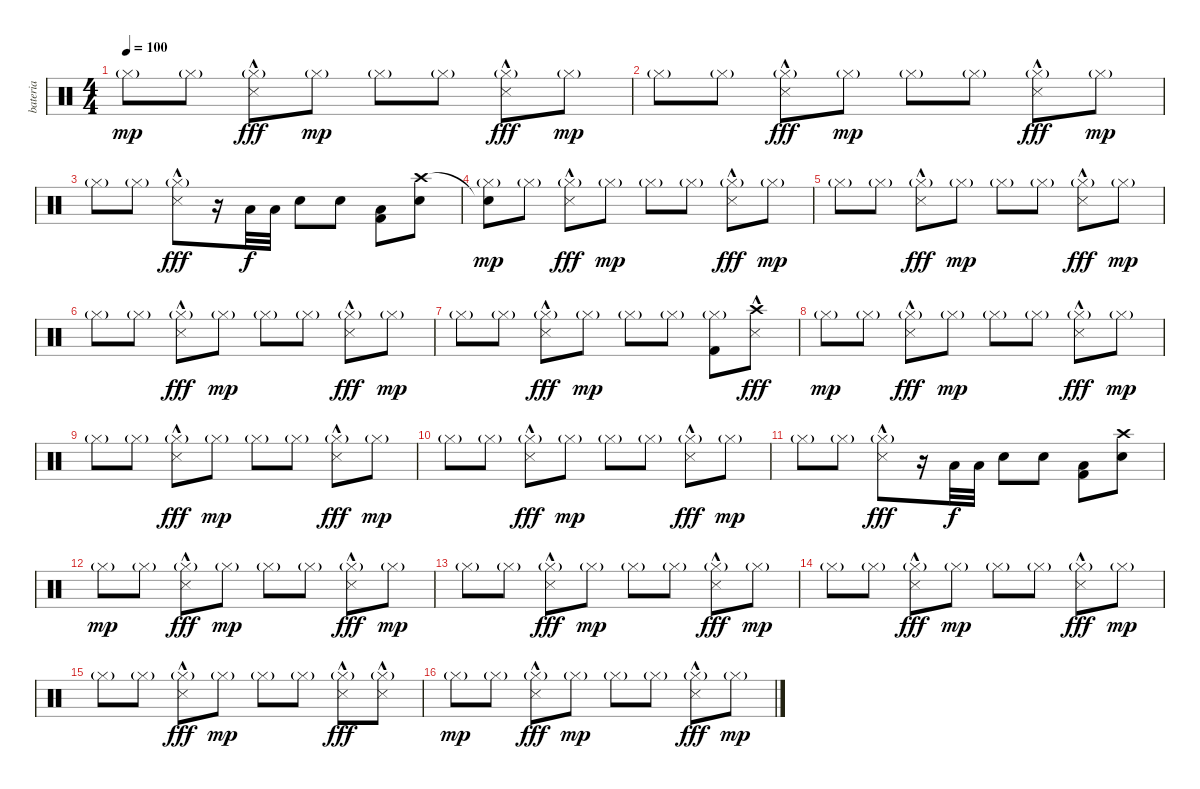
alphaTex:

\track ("bateria" "bateria") {instrument percussion}
\staff {score}
\articulation defaults
\ts (4 4)
\tempo 100
\clef neutral
\ks c "Hi-Hat (closed)"{g}.8{dy mp} "Hi-Hat (closed)"{g}.8
("Hi-Hat (closed)"{g} "Snare (side stick) 3"{hac}).8{dy fff} "Hi-Hat (closed)"{g}.8{dy mp} "Hi-Hat (closed)"{g}.8 "Hi-Hat (closed)"{g}.8 ("Hi-Hat (closed)"{g} "Snare (side stick) 3"{hac}).8{dy fff} "Hi-Hat (closed)"{g}.8{dy mp} |
"Hi-Hat (closed)"{g}.8 "Hi-Hat (closed)"{g}.8 ("Hi-Hat (closed)"{g} "Snare (side stick) 3"{hac}).8{dy fff} "Hi-Hat (closed)"{g}.8{dy mp} "Hi-Hat (closed)"{g}.8 "Hi-Hat (closed)"{g}.8 ("Hi-Hat (closed)"{g} "Snare (side stick) 3"{hac}).8{dy fff} "Hi-Hat (closed)"{g}.8{dy mp} |
"Hi-Hat (closed)"{g}.8 "Hi-Hat (closed)"{g}.8 ("Hi-Hat (closed)"{g} "Snare (side stick) 3"{hac}).8{dy fff} r.16 "Low Tom (hit)".32{dy f} "Low Tom (hit)".32 "Electric Snare (hit)".8 "Electric Snare (hit)".8 ("Low Tom (hit)" "Kick (hit) 2").8 ("Crash high (hit)" "Electric Snare (hit)").8 |
("Snare (hit)"{t} "Hi-Hat (closed)"{g}).8{dy mp} "Hi-Hat (closed)"{g}.8 ("Hi-Hat (closed)"{g} "Snare (side stick) 3"{hac}).8{dy fff} "Hi-Hat (closed)"{g}.8{dy mp} "Hi-Hat (closed)"{g}.8 "Hi-Hat (closed)"{g}.8 ("Hi-Hat (closed)"{g} "Snare (side stick) 3"{hac}).8{dy fff} "Hi-Hat (closed)"{g}.8{dy mp} |
"Hi-Hat (closed)"{g}.8 "Hi-Hat (closed)"{g}.8 ("Hi-Hat (closed)"{g} "Snare (side stick) 3"{hac}).8{dy fff} "Hi-Hat (closed)"{g}.8{dy mp} "Hi-Hat (closed)"{g}.8 "Hi-Hat (closed)"{g}.8 ("Hi-Hat (closed)"{g} "Snare (side stick) 3"{hac}).8{dy fff} "Hi-Hat (closed)"{g}.8{dy mp} |
"Hi-Hat (closed)"{g}.8 "Hi-Hat (closed)"{g}.8 ("Hi-Hat (closed)"{g} "Snare (side stick) 3"{hac}).8{dy fff} "Hi-Hat (closed)"{g}.8{dy mp} "Hi-Hat (closed)"{g}.8 "Hi-Hat (closed)"{g}.8 ("Hi-Hat (closed)"{g} "Snare (side stick) 3"{hac}).8{dy fff} "Hi-Hat (closed)"{g}.8{dy mp} |
"Hi-Hat (closed)"{g}.8 "Hi-Hat (closed)"{g}.8 ("Hi-Hat (closed)"{g} "Snare (side stick) 3"{hac}).8{dy fff} "Hi-Hat (closed)"{g}.8{dy mp} "Hi-Hat (closed)"{g}.8 "Hi-Hat (closed)"{g}.8 ("Hi-Hat (closed)"{g} "Kick (hit) 2").8 ("Crash high (hit)" "Snare (side stick) 3"{hac}).8{dy fff} |
"Hi-Hat (closed)"{g}.8{dy mp} "Hi-Hat (closed)"{g}.8 ("Hi-Hat (closed)"{g} "Snare (side stick) 3"{hac}).8{dy fff} "Hi-Hat (closed)"{g}.8{dy mp} "Hi-Hat (closed)"{g}.8 "Hi-Hat (closed)"{g}.8 ("Hi-Hat (closed)"{g} "Snare (side stick) 3"{hac}).8{dy fff} "Hi-Hat (closed)"{g}.8{dy mp} |
"Hi-Hat (closed)"{g}.8 "Hi-Hat (closed)"{g}.8 ("Hi-Hat (closed)"{g} "Snare (side stick) 3"{hac}).8{dy fff} "Hi-Hat (closed)"{g}.8{dy mp} "Hi-Hat (closed)"{g}.8 "Hi-Hat (closed)"{g}.8 ("Hi-Hat (closed)"{g} "Snare (side stick) 3"{hac}).8{dy fff} "Hi-Hat (closed)"{g}.8{dy mp} |
"Hi-Hat (closed)"{g}.8 "Hi-Hat (closed)"{g}.8 ("Hi-Hat (closed)"{g} "Snare (side stick) 3"{hac}).8{dy fff} "Hi-Hat (closed)"{g}.8{dy mp} "Hi-Hat (closed)"{g}.8 "Hi-Hat (closed)"{g}.8 ("Hi-Hat (closed)"{g} "Snare (side stick) 3"{hac}).8{dy fff} "Hi-Hat (closed)"{g}.8{dy mp} |
"Hi-Hat (closed)"{g}.8 "Hi-Hat (closed)"{g}.8 ("Hi-Hat (closed)"{g} "Snare (side stick) 3"{hac}).8{dy fff} r.16 "Low Tom (hit)".32{dy f} "Low Tom (hit)".32 "Electric Snare (hit)".8 "Electric Snare (hit)".8 ("Low Tom (hit)" "Kick (hit) 2").8 ("Crash high (hit)" "Electric Snare (hit)").8 |
"Hi-Hat (closed)"{g}.8{dy mp} "Hi-Hat (closed)"{g}.8 ("Hi-Hat (closed)"{g} "Snare (side stick) 3"{hac}).8{dy fff} "Hi-Hat (closed)"{g}.8{dy mp} "Hi-Hat (closed)"{g}.8 "Hi-Hat (closed)"{g}.8 ("Hi-Hat (closed)"{g} "Snare (side stick) 3"{hac}).8{dy fff} "Hi-Hat (closed)"{g}.8{dy mp} |
"Hi-Hat (closed)"{g}.8 "Hi-Hat (closed)"{g}.8 ("Hi-Hat (closed)"{g} "Snare (side stick) 3"{hac}).8{dy fff} "Hi-Hat (closed)"{g}.8{dy mp} "Hi-Hat (closed)"{g}.8 "Hi-Hat (closed)"{g}.8 ("Hi-Hat (closed)"{g} "Snare (side stick) 3"{hac}).8{dy fff} "Hi-Hat (closed)"{g}.8{dy mp} |
"Hi-Hat (closed)"{g}.8 "Hi-Hat (closed)"{g}.8 ("Hi-Hat (closed)"{g} "Snare (side stick) 3"{hac}).8{dy fff} "Hi-Hat (closed)"{g}.8{dy mp} "Hi-Hat (closed)"{g}.8 "Hi-Hat (closed)"{g}.8 ("Hi-Hat (closed)"{g} "Snare (side stick) 3"{hac}).8{dy fff} "Hi-Hat (closed)"{g}.8{dy mp} |
"Hi-Hat (closed)"{g}.8 "Hi-Hat (closed)"{g}.8 ("Hi-Hat (closed)"{g} "Snare (side stick) 3"{hac}).8{dy fff} "Hi-Hat (closed)"{g}.8{dy mp} "Hi-Hat (closed)"{g}.8 "Hi-Hat (closed)"{g}.8 ("Hi-Hat (closed)"{g} "Snare (side stick) 3"{hac}).8{dy fff} ("Hi-Hat (closed)"{g} "Snare (side stick) 3"{hac}).8 |
"Hi-Hat (closed)"{g}.8{dy mp} "Hi-Hat (closed)"{g}.8 ("Hi-Hat (closed)"{g} "Snare (side stick) 3"{hac}).8{dy fff} "Hi-Hat (closed)"{g}.8{dy mp} "Hi-Hat (closed)"{g}.8 "Hi-Hat (closed)"{g}.8 ("Hi-Hat (closed)"{g} "Snare (side stick) 3"{hac}).8{dy fff} "Hi-Hat (closed)"{g}.8{dy mp}
